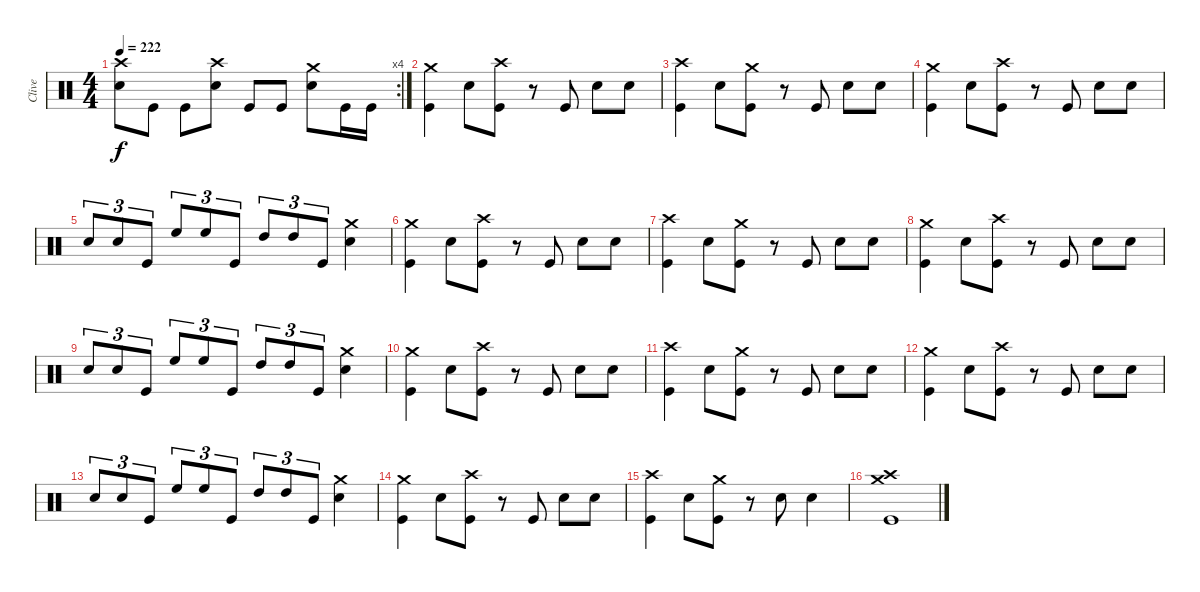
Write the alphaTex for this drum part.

\track ("Clive" "Clive") {instrument percussion}
\staff {score}
\articulation defaults
\rc 4
\ts (4 4)
\tempo 222
\clef neutral
\ks c
("Crash high (hit)" "Snare (hit) 2").8{dy f} "Kick (hit)".8 "Kick (hit)".8 ("Crash high (hit)" "Snare (hit) 2").8 "Kick (hit)".8 "Kick (hit)".8 ("Crash medium (hit)" "Snare (hit) 2").8 "Kick (hit)".16 "Kick (hit)".16 |
("Crash medium (hit)" "Kick (hit)").4 "Snare (hit) 2".8 ("Crash high (hit)" "Kick (hit)").8 r.8 "Kick (hit)".8 "Snare (hit) 2".8 "Snare (hit) 2".8 |
("Crash high (hit)" "Kick (hit)").4 "Snare (hit) 2".8 ("Crash medium (hit)" "Kick (hit)").8 r.8 "Kick (hit)".8 "Snare (hit) 2".8 "Snare (hit) 2".8 |
("Crash medium (hit)" "Kick (hit)").4 "Snare (hit) 2".8 ("Crash high (hit)" "Kick (hit)").8 r.8 "Kick (hit)".8 "Snare (hit) 2".8 "Snare (hit) 2".8 |
"Snare (hit) 2".8{tu (3 2)} "Snare (hit) 2".8{tu (3 2)} "Kick (hit)".8{tu (3 2)} "High Floor Tom (hit)".8{tu (3 2)} "High Floor Tom (hit)".8{tu (3 2)} "Kick (hit)".8{tu (3 2)} "High Tom (hit)".8{tu (3 2)} "High Tom (hit)".8{tu (3 2)} "Kick (hit)".8{tu (3 2)} ("Crash medium (hit)" "Snare (hit) 2").4 |
("Crash medium (hit)" "Kick (hit)").4 "Snare (hit) 2".8 ("Crash high (hit)" "Kick (hit)").8 r.8 "Kick (hit)".8 "Snare (hit) 2".8 "Snare (hit) 2".8 |
("Crash high (hit)" "Kick (hit)").4 "Snare (hit) 2".8 ("Crash medium (hit)" "Kick (hit)").8 r.8 "Kick (hit)".8 "Snare (hit) 2".8 "Snare (hit) 2".8 |
("Crash medium (hit)" "Kick (hit)").4 "Snare (hit) 2".8 ("Crash high (hit)" "Kick (hit)").8 r.8 "Kick (hit)".8 "Snare (hit) 2".8 "Snare (hit) 2".8 |
"Snare (hit) 2".8{tu (3 2)} "Snare (hit) 2".8{tu (3 2)} "Kick (hit)".8{tu (3 2)} "High Floor Tom (hit)".8{tu (3 2)} "High Floor Tom (hit)".8{tu (3 2)} "Kick (hit)".8{tu (3 2)} "High Tom (hit)".8{tu (3 2)} "High Tom (hit)".8{tu (3 2)} "Kick (hit)".8{tu (3 2)} ("Crash medium (hit)" "Snare (hit) 2").4 |
("Crash medium (hit)" "Kick (hit)").4 "Snare (hit) 2".8 ("Crash high (hit)" "Kick (hit)").8 r.8 "Kick (hit)".8 "Snare (hit) 2".8 "Snare (hit) 2".8 |
("Crash high (hit)" "Kick (hit)").4 "Snare (hit) 2".8 ("Crash medium (hit)" "Kick (hit)").8 r.8 "Kick (hit)".8 "Snare (hit) 2".8 "Snare (hit) 2".8 |
("Crash medium (hit)" "Kick (hit)").4 "Snare (hit) 2".8 ("Crash high (hit)" "Kick (hit)").8 r.8 "Kick (hit)".8 "Snare (hit) 2".8 "Snare (hit) 2".8 |
"Snare (hit) 2".8{tu (3 2)} "Snare (hit) 2".8{tu (3 2)} "Kick (hit)".8{tu (3 2)} "High Floor Tom (hit)".8{tu (3 2)} "High Floor Tom (hit)".8{tu (3 2)} "Kick (hit)".8{tu (3 2)} "High Tom (hit)".8{tu (3 2)} "High Tom (hit)".8{tu (3 2)} "Kick (hit)".8{tu (3 2)} ("Crash medium (hit)" "Snare (hit) 2").4 |
("Crash medium (hit)" "Kick (hit)").4 "Snare (hit) 2".8 ("Crash high (hit)" "Kick (hit)").8 r.8 "Kick (hit)".8 "Snare (hit) 2".8 "Snare (hit) 2".8 |
("Crash high (hit)" "Kick (hit)").4 "Snare (hit) 2".8 ("Crash medium (hit)" "Kick (hit)").8 r.8 "Snare (hit) 2".8 "Snare (hit) 2".4 |
("Crash medium (hit)" "Crash high (hit)" "Kick (hit)").1
